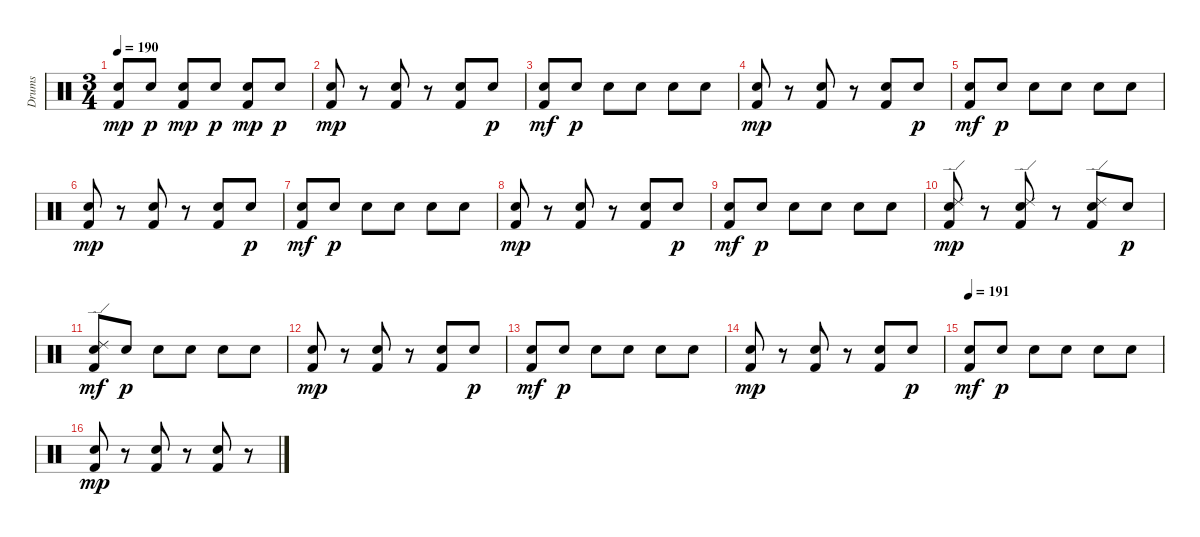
\track ("Drums" "Drums") {instrument percussion}
\staff {score}
\articulation defaults
\ts (3 4)
\tempo 190
\clef neutral
\ks c
("Kick (hit) 2" "Electric Snare (hit)").8{dy mp} "Electric Snare (hit)".8{dy p} ("Kick (hit) 2" "Electric Snare (hit)").8{dy mp} "Electric Snare (hit)".8{dy p} ("Kick (hit) 2" "Electric Snare (hit)").8{dy mp} "Electric Snare (hit)".8{dy p} |
("Kick (hit) 2" "Electric Snare (hit)").8{dy mp} r.8 ("Kick (hit) 2" "Electric Snare (hit)").8 r.8 ("Kick (hit) 2" "Electric Snare (hit)").8 "Electric Snare (hit)".8{dy p} |
("Kick (hit) 2" "Electric Snare (hit)").8{dy mf} "Electric Snare (hit)".8{dy p} "Electric Snare (hit)".8 "Electric Snare (hit)".8 "Electric Snare (hit)".8 "Electric Snare (hit)".8 |
("Kick (hit) 2" "Electric Snare (hit)").8{dy mp} r.8 ("Kick (hit) 2" "Electric Snare (hit)").8 r.8 ("Kick (hit) 2" "Electric Snare (hit)").8 "Electric Snare (hit)".8{dy p} |
("Kick (hit) 2" "Electric Snare (hit)").8{dy mf} "Electric Snare (hit)".8{dy p} "Electric Snare (hit)".8 "Electric Snare (hit)".8 "Electric Snare (hit)".8 "Electric Snare (hit)".8 |
("Kick (hit) 2" "Electric Snare (hit)").8{dy mp} r.8 ("Kick (hit) 2" "Electric Snare (hit)").8 r.8 ("Kick (hit) 2" "Electric Snare (hit)").8 "Electric Snare (hit)".8{dy p} |
("Kick (hit) 2" "Electric Snare (hit)").8{dy mf} "Electric Snare (hit)".8{dy p} "Electric Snare (hit)".8 "Electric Snare (hit)".8 "Electric Snare (hit)".8 "Electric Snare (hit)".8 |
("Kick (hit) 2" "Electric Snare (hit)").8{dy mp} r.8 ("Kick (hit) 2" "Electric Snare (hit)").8 r.8 ("Kick (hit) 2" "Electric Snare (hit)").8 "Electric Snare (hit)".8{dy p} |
("Kick (hit) 2" "Electric Snare (hit)").8{dy mf} "Electric Snare (hit)".8{dy p} "Electric Snare (hit)".8 "Electric Snare (hit)".8 "Electric Snare (hit)".8 "Electric Snare (hit)".8 |
("Ride (edge) 2" "Kick (hit) 2" "Electric Snare (hit)").8{dy mp} r.8 ("Ride (edge) 2" "Kick (hit) 2" "Electric Snare (hit)").8 r.8 ("Ride (edge) 2" "Kick (hit) 2" "Electric Snare (hit)").8 "Electric Snare (hit)".8{dy p} |
("Ride (edge) 2" "Kick (hit) 2" "Electric Snare (hit)").8{dy mf} "Electric Snare (hit)".8{dy p} "Electric Snare (hit)".8 "Electric Snare (hit)".8 "Electric Snare (hit)".8 "Electric Snare (hit)".8 |
("Kick (hit) 2" "Electric Snare (hit)").8{dy mp} r.8 ("Kick (hit) 2" "Electric Snare (hit)").8 r.8 ("Kick (hit) 2" "Electric Snare (hit)").8 "Electric Snare (hit)".8{dy p} |
("Kick (hit) 2" "Electric Snare (hit)").8{dy mf} "Electric Snare (hit)".8{dy p} "Electric Snare (hit)".8 "Electric Snare (hit)".8 "Electric Snare (hit)".8 "Electric Snare (hit)".8 |
("Kick (hit) 2" "Electric Snare (hit)").8{dy mp} r.8 ("Kick (hit) 2" "Electric Snare (hit)").8 r.8 ("Kick (hit) 2" "Electric Snare (hit)").8 "Electric Snare (hit)".8{dy p} |
\tempo 191
("Kick (hit) 2" "Electric Snare (hit)").8{dy mf} "Electric Snare (hit)".8{dy p} "Electric Snare (hit)".8 "Electric Snare (hit)".8 "Electric Snare (hit)".8 "Electric Snare (hit)".8 |
("Kick (hit) 2" "Electric Snare (hit)").8{dy mp} r.8 ("Kick (hit) 2" "Electric Snare (hit)").8 r.8 ("Kick (hit) 2" "Electric Snare (hit)").8 r.8
